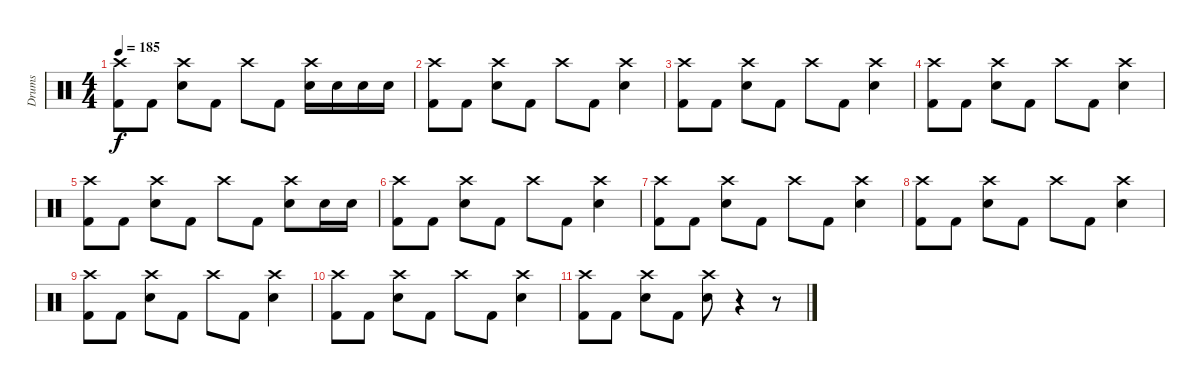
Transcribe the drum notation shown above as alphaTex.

\track ("Drums" "Drums") {instrument percussion}
\staff {score}
\articulation defaults
\ts (4 4)
\tempo 185
\clef neutral
\ks c
("Crash high (hit)" "Kick (hit) 2").8{dy f} "Kick (hit) 2".8 ("Crash high (hit)" "Electric Snare (hit)").8 "Kick (hit) 2".8 "Crash high (hit)".8 "Kick (hit) 2".8 ("Crash high (hit)" "Electric Snare (hit)").16 "Electric Snare (hit)".16 "Electric Snare (hit)".16 "Electric Snare (hit)".16 |
("Crash high (hit)" "Kick (hit) 2").8 "Kick (hit) 2".8 ("Crash high (hit)" "Electric Snare (hit)").8 "Kick (hit) 2".8 "Crash high (hit)".8 "Kick (hit) 2".8 ("Crash high (hit)" "Electric Snare (hit)").4 |
("Crash high (hit)" "Kick (hit) 2").8 "Kick (hit) 2".8 ("Crash high (hit)" "Electric Snare (hit)").8 "Kick (hit) 2".8 "Crash high (hit)".8 "Kick (hit) 2".8 ("Crash high (hit)" "Electric Snare (hit)").4 |
("Crash high (hit)" "Kick (hit) 2").8 "Kick (hit) 2".8 ("Crash high (hit)" "Electric Snare (hit)").8 "Kick (hit) 2".8 "Crash high (hit)".8 "Kick (hit) 2".8 ("Crash high (hit)" "Electric Snare (hit)").4 |
("Crash high (hit)" "Kick (hit) 2").8 "Kick (hit) 2".8 ("Crash high (hit)" "Electric Snare (hit)").8 "Kick (hit) 2".8 "Crash high (hit)".8 "Kick (hit) 2".8 ("Crash high (hit)" "Electric Snare (hit)").8 "Electric Snare (hit)".16 "Electric Snare (hit)".16 |
("Crash high (hit)" "Kick (hit) 2").8 "Kick (hit) 2".8 ("Crash high (hit)" "Electric Snare (hit)").8 "Kick (hit) 2".8 "Crash high (hit)".8 "Kick (hit) 2".8 ("Crash high (hit)" "Electric Snare (hit)").4 |
("Crash high (hit)" "Kick (hit) 2").8 "Kick (hit) 2".8 ("Crash high (hit)" "Electric Snare (hit)").8 "Kick (hit) 2".8 "Crash high (hit)".8 "Kick (hit) 2".8 ("Crash high (hit)" "Electric Snare (hit)").4 |
("Crash high (hit)" "Kick (hit) 2").8 "Kick (hit) 2".8 ("Crash high (hit)" "Electric Snare (hit)").8 "Kick (hit) 2".8 "Crash high (hit)".8 "Kick (hit) 2".8 ("Crash high (hit)" "Electric Snare (hit)").4 |
("Crash high (hit)" "Kick (hit) 2").8 "Kick (hit) 2".8 ("Crash high (hit)" "Electric Snare (hit)").8 "Kick (hit) 2".8 "Crash high (hit)".8 "Kick (hit) 2".8 ("Crash high (hit)" "Electric Snare (hit)").4 |
("Crash high (hit)" "Kick (hit) 2").8 "Kick (hit) 2".8 ("Crash high (hit)" "Electric Snare (hit)").8 "Kick (hit) 2".8 "Crash high (hit)".8 "Kick (hit) 2".8 ("Crash high (hit)" "Electric Snare (hit)").4 |
("Crash high (hit)" "Kick (hit) 2").8 "Kick (hit) 2".8 ("Crash high (hit)" "Electric Snare (hit)").8 "Kick (hit) 2".8 ("Crash high (hit)" "Electric Snare (hit)").8 r.4 r.8
